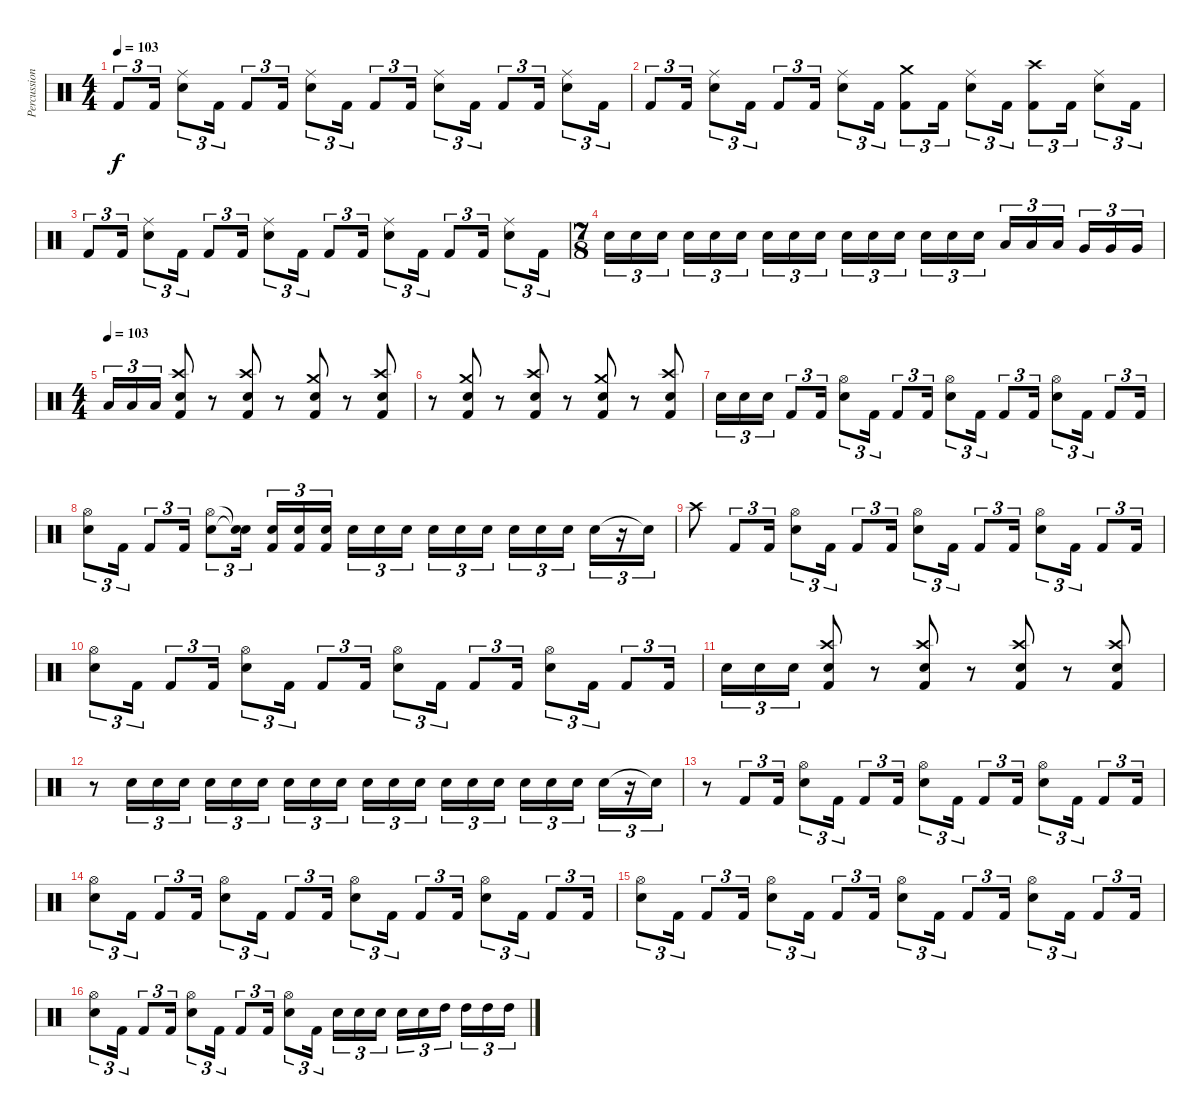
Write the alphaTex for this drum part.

\track ("Percussion" "Percussion") {instrument percussion}
\staff {score}
\articulation defaults
\ts (4 4)
\tempo 103
\clef neutral
\ks c "Kick (hit) 2".8{tu (3 2) dy f} "Kick (hit) 2".16{tu (3 2)}
("Ride (middle)" "Snare (hit) 2").8{tu (3 2)} "Kick (hit) 2".16{tu (3 2)} "Kick (hit) 2".8{tu (3 2)} "Kick (hit) 2".16{tu (3 2)} ("Ride (middle)" "Snare (hit) 2").8{tu (3 2)} "Kick (hit) 2".16{tu (3 2)} "Kick (hit) 2".8{tu (3 2)} "Kick (hit) 2".16{tu (3 2)} ("Ride (middle)" "Snare (hit) 2").8{tu (3 2)} "Kick (hit) 2".16{tu (3 2)} "Kick (hit) 2".8{tu (3 2)} "Kick (hit) 2".16{tu (3 2)} ("Ride (middle)" "Snare (hit) 2").8{tu (3 2)} "Kick (hit) 2".16{tu (3 2)} |
"Kick (hit) 2".8{tu (3 2)} "Kick (hit) 2".16{tu (3 2)} ("Ride (middle)" "Snare (hit) 2").8{tu (3 2)} "Kick (hit) 2".16{tu (3 2)} "Kick (hit) 2".8{tu (3 2)} "Kick (hit) 2".16{tu (3 2)} ("Ride (middle)" "Snare (hit) 2").8{tu (3 2)} "Kick (hit) 2".16{tu (3 2)} ("Crash medium (hit)" "Kick (hit) 2").8{tu (3 2)} "Kick (hit) 2".16{tu (3 2)} ("Ride (middle)" "Snare (hit) 2").8{tu (3 2)} "Kick (hit) 2".16{tu (3 2)} ("Crash high (hit)" "Kick (hit) 2").8{tu (3 2)} "Kick (hit) 2".16{tu (3 2)} ("Ride (middle)" "Snare (hit) 2").8{tu (3 2)} "Kick (hit) 2".16{tu (3 2)} |
"Kick (hit) 2".8{tu (3 2)} "Kick (hit) 2".16{tu (3 2)} ("Ride (middle)" "Snare (hit) 2").8{tu (3 2)} "Kick (hit) 2".16{tu (3 2)} "Kick (hit) 2".8{tu (3 2)} "Kick (hit) 2".16{tu (3 2)} ("Ride (middle)" "Snare (hit) 2").8{tu (3 2)} "Kick (hit) 2".16{tu (3 2)} "Kick (hit) 2".8{tu (3 2)} "Kick (hit) 2".16{tu (3 2)} ("Ride (middle)" "Snare (hit) 2").8{tu (3 2)} "Kick (hit) 2".16{tu (3 2)} "Kick (hit) 2".8{tu (3 2)} "Kick (hit) 2".16{tu (3 2)} ("Ride (middle)" "Snare (hit) 2").8{tu (3 2)} "Kick (hit) 2".16{tu (3 2)} |
\ts (7 8)
"Electric Snare (hit)".16{tu (3 2) volume 10} "Electric Snare (hit)".16{tu (3 2)} "Electric Snare (hit)".16{tu (3 2)} "Electric Snare (hit)".16{tu (3 2)} "Electric Snare (hit)".16{tu (3 2)} "Electric Snare (hit)".16{tu (3 2)} "Electric Snare (hit)".16{tu (3 2)} "Electric Snare (hit)".16{tu (3 2)} "Electric Snare (hit)".16{tu (3 2)} "Electric Snare (hit)".16{tu (3 2)} "Electric Snare (hit)".16{tu (3 2)} "Electric Snare (hit)".16{tu (3 2)} "Electric Snare (hit)".16{tu (3 2)} "Electric Snare (hit)".16{tu (3 2)} "Electric Snare (hit)".16{tu (3 2)} "Low Tom (hit)".16{tu (3 2)} "Low Tom (hit)".16{tu (3 2)} "Low Tom (hit)".16{tu (3 2)} "Very Low Tom (hit)".16{tu (3 2)} "Very Low Tom (hit)".16{tu (3 2)} "Very Low Tom (hit)".16{tu (3 2)} |
\ts (4 4)
\tempo (103)
"Low Floor Tom (hit)".16{tu (3 2)} "Low Floor Tom (hit)".16{tu (3 2)} "Low Floor Tom (hit)".16{tu (3 2)} ("Electric Snare (hit)" "Crash high (hit)" "Kick (hit) 2").8 r.8 ("Electric Snare (hit)" "Crash high (hit)" "Kick (hit) 2").8 r.8 ("Electric Snare (hit)" "Crash medium (hit)" "Kick (hit) 2").8 r.8 ("Electric Snare (hit)" "Crash high (hit)" "Kick (hit) 2").8 |
r.8 ("Electric Snare (hit)" "Crash medium (hit)" "Kick (hit) 2").8 r.8 ("Electric Snare (hit)" "Crash high (hit)" "Kick (hit) 2").8 r.8 ("Electric Snare (hit)" "Crash medium (hit)" "Kick (hit) 2").8 r.8 ("Electric Snare (hit)" "Crash high (hit)" "Kick (hit) 2").8 |
"Electric Snare (hit)".16{tu (3 2)} "Electric Snare (hit)".16{tu (3 2)} "Electric Snare (hit)".16{tu (3 2)} "Kick (hit) 2".8{tu (3 2)} "Kick (hit) 2".16{tu (3 2)} ("Electric Snare (hit)" "Hi-Hat (open)").8{tu (3 2)} "Kick (hit) 2".16{tu (3 2)} "Kick (hit) 2".8{tu (3 2)} "Kick (hit) 2".16{tu (3 2)} ("Electric Snare (hit)" "Hi-Hat (open)").8{tu (3 2)} "Kick (hit) 2".16{tu (3 2)} "Kick (hit) 2".8{tu (3 2)} "Kick (hit) 2".16{tu (3 2)} ("Electric Snare (hit)" "Hi-Hat (open)").8{tu (3 2)} "Kick (hit) 2".16{tu (3 2)} "Kick (hit) 2".8{tu (3 2)} "Kick (hit) 2".16{tu (3 2)} |
("Electric Snare (hit)" "Hi-Hat (open)").8{tu (3 2)} "Kick (hit) 2".16{tu (3 2)} "Kick (hit) 2".8{tu (3 2)} "Kick (hit) 2".16{tu (3 2)} ("Electric Snare (hit)" "Hi-Hat (open)").8{tu (3 2)} ("Snare (hit)"{t} "Snare (hit)"{t}).16{tu (3 2)} ("Electric Snare (hit)" "Kick (hit) 2").16{tu (3 2)} ("Electric Snare (hit)" "Kick (hit) 2").16{tu (3 2)} ("Electric Snare (hit)" "Kick (hit) 2").16{tu (3 2)} "Electric Snare (hit)".16{tu (3 2)} "Electric Snare (hit)".16{tu (3 2)} "Electric Snare (hit)".16{tu (3 2)} "Electric Snare (hit)".16{tu (3 2)} "Electric Snare (hit)".16{tu (3 2)} "Electric Snare (hit)".16{tu (3 2)} "Electric Snare (hit)".16{tu (3 2)} "Electric Snare (hit)".16{tu (3 2)} "Electric Snare (hit)".16{tu (3 2)} "Electric Snare (hit)".16{tu (3 2)} r.16{tu (3 2)} "Snare (hit)"{t}.16{tu (3 2)} |
"Crash high (hit)".8 "Kick (hit) 2".8{tu (3 2)} "Kick (hit) 2".16{tu (3 2)} ("Electric Snare (hit)" "Hi-Hat (open)").8{tu (3 2)} "Kick (hit) 2".16{tu (3 2)} "Kick (hit) 2".8{tu (3 2)} "Kick (hit) 2".16{tu (3 2)} ("Electric Snare (hit)" "Hi-Hat (open)").8{tu (3 2)} "Kick (hit) 2".16{tu (3 2)} "Kick (hit) 2".8{tu (3 2)} "Kick (hit) 2".16{tu (3 2)} ("Electric Snare (hit)" "Hi-Hat (open)").8{tu (3 2)} "Kick (hit) 2".16{tu (3 2)} "Kick (hit) 2".8{tu (3 2)} "Kick (hit) 2".16{tu (3 2)} |
("Electric Snare (hit)" "Hi-Hat (open)").8{tu (3 2)} "Kick (hit) 2".16{tu (3 2)} "Kick (hit) 2".8{tu (3 2)} "Kick (hit) 2".16{tu (3 2)} ("Electric Snare (hit)" "Hi-Hat (open)").8{tu (3 2)} "Kick (hit) 2".16{tu (3 2)} "Kick (hit) 2".8{tu (3 2)} "Kick (hit) 2".16{tu (3 2)} ("Electric Snare (hit)" "Hi-Hat (open)").8{tu (3 2)} "Kick (hit) 2".16{tu (3 2)} "Kick (hit) 2".8{tu (3 2)} "Kick (hit) 2".16{tu (3 2)} ("Electric Snare (hit)" "Hi-Hat (open)").8{tu (3 2)} "Kick (hit) 2".16{tu (3 2)} "Kick (hit) 2".8{tu (3 2)} "Kick (hit) 2".16{tu (3 2)} |
"Electric Snare (hit)".16{tu (3 2)} "Electric Snare (hit)".16{tu (3 2)} "Electric Snare (hit)".16{tu (3 2)} ("Crash high (hit)" "Electric Snare (hit)" "Kick (hit) 2").8 r.8 ("Crash high (hit)" "Electric Snare (hit)" "Kick (hit) 2").8 r.8 ("Crash high (hit)" "Electric Snare (hit)" "Kick (hit) 2").8 r.8 ("Crash high (hit)" "Electric Snare (hit)" "Kick (hit) 2").8 |
r.8 "Electric Snare (hit)".16{tu (3 2)} "Electric Snare (hit)".16{tu (3 2)} "Electric Snare (hit)".16{tu (3 2)} "Electric Snare (hit)".16{tu (3 2)} "Electric Snare (hit)".16{tu (3 2)} "Electric Snare (hit)".16{tu (3 2)} "Snare (hit) 2".16{tu (3 2)} "Snare (hit) 2".16{tu (3 2)} "Snare (hit) 2".16{tu (3 2)} "Snare (hit) 2".16{tu (3 2)} "Snare (hit) 2".16{tu (3 2)} "Snare (hit) 2".16{tu (3 2)} "Snare (hit) 2".16{tu (3 2)} "Snare (hit) 2".16{tu (3 2)} "Snare (hit) 2".16{tu (3 2)} "Snare (hit) 2".16{tu (3 2)} "Snare (hit) 2".16{tu (3 2)} "Snare (hit) 2".16{tu (3 2)} "Electric Snare (hit)".16{tu (3 2)} r.16{tu (3 2)} "Snare (hit)"{t}.16{tu (3 2)} |
r.8 "Kick (hit) 2".8{tu (3 2)} "Kick (hit) 2".16{tu (3 2)} ("Electric Snare (hit)" "Hi-Hat (open)").8{tu (3 2)} "Kick (hit) 2".16{tu (3 2)} "Kick (hit) 2".8{tu (3 2)} "Kick (hit) 2".16{tu (3 2)} ("Electric Snare (hit)" "Hi-Hat (open)").8{tu (3 2)} "Kick (hit) 2".16{tu (3 2)} "Kick (hit) 2".8{tu (3 2)} "Kick (hit) 2".16{tu (3 2)} ("Electric Snare (hit)" "Hi-Hat (open)").8{tu (3 2)} "Kick (hit) 2".16{tu (3 2)} "Kick (hit) 2".8{tu (3 2)} "Kick (hit) 2".16{tu (3 2)} |
("Hi-Hat (open)" "Electric Snare (hit)").8{tu (3 2)} "Kick (hit) 2".16{tu (3 2)} "Kick (hit) 2".8{tu (3 2)} "Kick (hit) 2".16{tu (3 2)} ("Electric Snare (hit)" "Hi-Hat (open)").8{tu (3 2)} "Kick (hit) 2".16{tu (3 2)} "Kick (hit) 2".8{tu (3 2)} "Kick (hit) 2".16{tu (3 2)} ("Electric Snare (hit)" "Hi-Hat (open)").8{tu (3 2)} "Kick (hit) 2".16{tu (3 2)} "Kick (hit) 2".8{tu (3 2)} "Kick (hit) 2".16{tu (3 2)} ("Electric Snare (hit)" "Hi-Hat (open)").8{tu (3 2)} "Kick (hit) 2".16{tu (3 2)} "Kick (hit) 2".8{tu (3 2)} "Kick (hit) 2".16{tu (3 2)} |
("Hi-Hat (open)" "Electric Snare (hit)").8{tu (3 2)} "Kick (hit) 2".16{tu (3 2)} "Kick (hit) 2".8{tu (3 2)} "Kick (hit) 2".16{tu (3 2)} ("Electric Snare (hit)" "Hi-Hat (open)").8{tu (3 2)} "Kick (hit) 2".16{tu (3 2)} "Kick (hit) 2".8{tu (3 2)} "Kick (hit) 2".16{tu (3 2)} ("Electric Snare (hit)" "Hi-Hat (open)").8{tu (3 2)} "Kick (hit) 2".16{tu (3 2)} "Kick (hit) 2".8{tu (3 2)} "Kick (hit) 2".16{tu (3 2)} ("Electric Snare (hit)" "Hi-Hat (open)").8{tu (3 2)} "Kick (hit) 2".16{tu (3 2)} "Kick (hit) 2".8{tu (3 2)} "Kick (hit) 2".16{tu (3 2)} |
("Hi-Hat (open)" "Electric Snare (hit)").8{tu (3 2)} "Kick (hit) 2".16{tu (3 2)} "Kick (hit) 2".8{tu (3 2)} "Kick (hit) 2".16{tu (3 2)} ("Electric Snare (hit)" "Hi-Hat (open)").8{tu (3 2)} "Kick (hit) 2".16{tu (3 2)} "Kick (hit) 2".8{tu (3 2)} "Kick (hit) 2".16{tu (3 2)} ("Electric Snare (hit)" "Hi-Hat (open)").8{tu (3 2)} "Kick (hit) 2".16{tu (3 2)} "Electric Snare (hit)".16{tu (3 2)} "Electric Snare (hit)".16{tu (3 2)} "Electric Snare (hit)".16{tu (3 2)} "Electric Snare (hit)".16{tu (3 2)} "Electric Snare (hit)".16{tu (3 2)} "High Tom (hit)".16{tu (3 2)} "High Tom (hit)".16{tu (3 2)} "High Tom (hit)".16{tu (3 2)} "High Tom (hit)".16{tu (3 2)}
